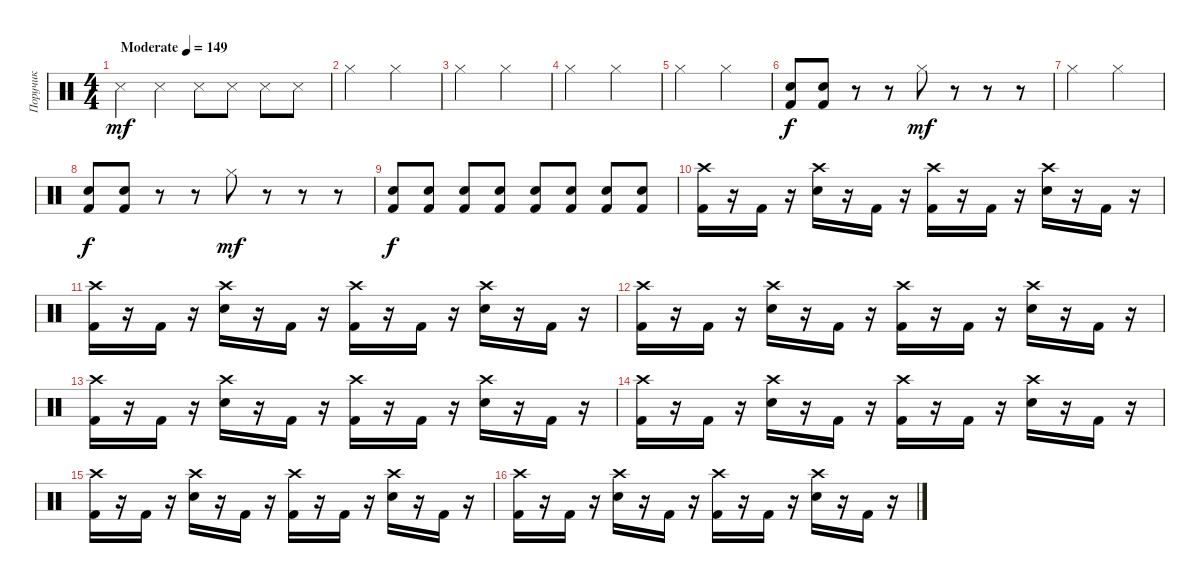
\track ("Поручик" "Поручик") {instrument percussion}
\staff {score}
\articulation defaults
\ts (4 4)
\tempo (149 "Moderate")
\clef neutral
\ks c "Snare (side stick) 3".4{dy mf} "Snare (side stick) 3".4 "Snare (side stick) 3".8 "Snare (side stick) 3".8 "Snare (side stick) 3".8 "Snare (side stick) 3".8
|
"Hi-Hat (closed)".2 "Hi-Hat (closed)".2 |
"Hi-Hat (closed)".2 "Hi-Hat (closed)".2 |
"Hi-Hat (closed)".2 "Hi-Hat (closed)".2 |
"Hi-Hat (closed)".2 "Hi-Hat (closed)".2 |
("Snare (hit) 2" "Kick (hit) 2").8{dy f} ("Snare (hit) 2" "Kick (hit) 2").8 r.8 r.8 "Hi-Hat (closed)".8{dy mf} r.8 r.8 r.8 |
"Hi-Hat (closed)".2 "Hi-Hat (closed)".2 |
("Snare (hit) 2" "Kick (hit) 2").8{dy f} ("Snare (hit) 2" "Kick (hit) 2").8 r.8 r.8 "Hi-Hat (closed)".8{dy mf} r.8 r.8 r.8 |
("Snare (hit) 2" "Kick (hit) 2").8{dy f} ("Snare (hit) 2" "Kick (hit) 2").8 ("Snare (hit) 2" "Kick (hit) 2").8 ("Snare (hit) 2" "Kick (hit) 2").8 ("Snare (hit) 2" "Kick (hit) 2").8 ("Snare (hit) 2" "Kick (hit) 2").8 ("Snare (hit) 2" "Kick (hit) 2").8 ("Snare (hit) 2" "Kick (hit) 2").8 |
("Crash high (hit)" "Kick (hit) 2").16 r.16 "Kick (hit) 2".16 r.16 ("Crash high (hit)" "Snare (hit) 2").16 r.16 "Kick (hit) 2".16 r.16 ("Crash high (hit)" "Kick (hit) 2").16 r.16 "Kick (hit) 2".16 r.16 ("Crash high (hit)" "Snare (hit) 2").16 r.16 "Kick (hit) 2".16 r.16 |
("Crash high (hit)" "Kick (hit) 2").16 r.16 "Kick (hit) 2".16 r.16 ("Crash high (hit)" "Snare (hit) 2").16 r.16 "Kick (hit) 2".16 r.16 ("Crash high (hit)" "Kick (hit) 2").16 r.16 "Kick (hit) 2".16 r.16 ("Crash high (hit)" "Snare (hit) 2").16 r.16 "Kick (hit) 2".16 r.16 |
("Crash high (hit)" "Kick (hit) 2").16 r.16 "Kick (hit) 2".16 r.16 ("Crash high (hit)" "Snare (hit) 2").16 r.16 "Kick (hit) 2".16 r.16 ("Crash high (hit)" "Kick (hit) 2").16 r.16 "Kick (hit) 2".16 r.16 ("Crash high (hit)" "Snare (hit) 2").16 r.16 "Kick (hit) 2".16 r.16 |
("Crash high (hit)" "Kick (hit) 2").16 r.16 "Kick (hit) 2".16 r.16 ("Crash high (hit)" "Snare (hit) 2").16 r.16 "Kick (hit) 2".16 r.16 ("Crash high (hit)" "Kick (hit) 2").16 r.16 "Kick (hit) 2".16 r.16 ("Crash high (hit)" "Snare (hit) 2").16 r.16 "Kick (hit) 2".16 r.16 |
("Crash high (hit)" "Kick (hit) 2").16 r.16 "Kick (hit) 2".16 r.16 ("Crash high (hit)" "Snare (hit) 2").16 r.16 "Kick (hit) 2".16 r.16 ("Crash high (hit)" "Kick (hit) 2").16 r.16 "Kick (hit) 2".16 r.16 ("Crash high (hit)" "Snare (hit) 2").16 r.16 "Kick (hit) 2".16 r.16 |
("Crash high (hit)" "Kick (hit) 2").16 r.16 "Kick (hit) 2".16 r.16 ("Crash high (hit)" "Snare (hit) 2").16 r.16 "Kick (hit) 2".16 r.16 ("Crash high (hit)" "Kick (hit) 2").16 r.16 "Kick (hit) 2".16 r.16 ("Crash high (hit)" "Snare (hit) 2").16 r.16 "Kick (hit) 2".16 r.16 |
("Crash high (hit)" "Kick (hit) 2").16 r.16 "Kick (hit) 2".16 r.16 ("Crash high (hit)" "Snare (hit) 2").16 r.16 "Kick (hit) 2".16 r.16 ("Crash high (hit)" "Kick (hit) 2").16 r.16 "Kick (hit) 2".16 r.16 ("Crash high (hit)" "Snare (hit) 2").16 r.16 "Kick (hit) 2".16 r.16
